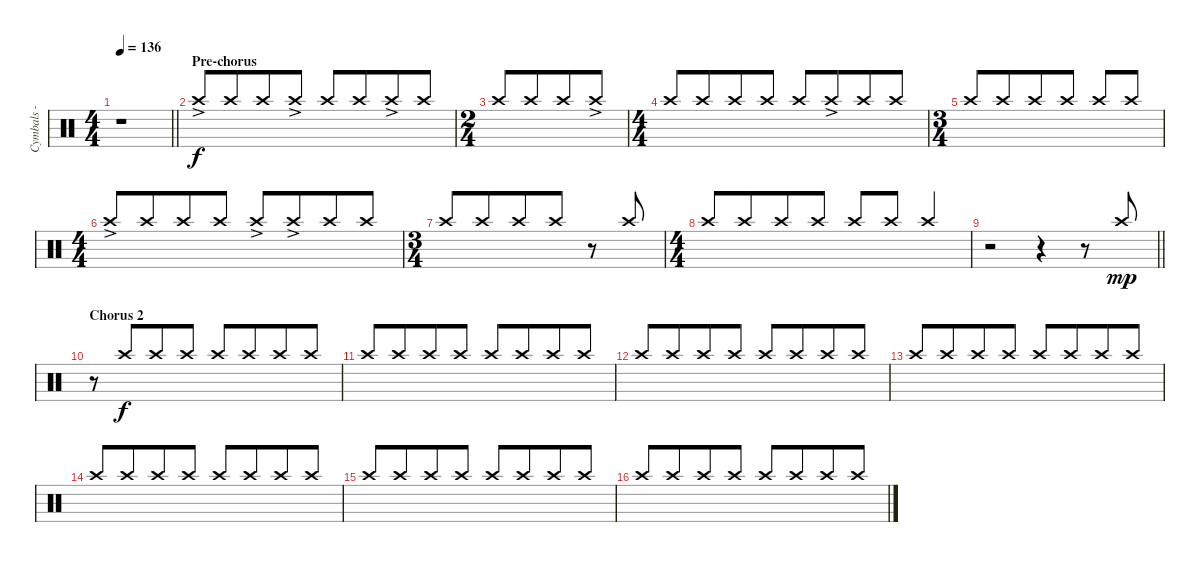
\track ("Cymbals - crash - left" "Cymbals - ") {instrument percussion}
\staff {score}
\articulation defaults
\ts (4 4)
\tempo 136
\clef neutral
\barLineRight lightlight
\ks c
r.1{dy ff} |
\section ("" "Pre-chorus")
"Crash high (hit)"{ac}.8{dy f beam Up} "Crash high (hit)".8{beam Up beam merge} "Crash high (hit)".8{beam Up} "Crash high (hit)"{ac}.8{beam Up} "Crash high (hit)".8{beam Up} "Crash high (hit)".8{beam Up beam merge} "Crash high (hit)"{ac}.8{beam Up} "Crash high (hit)".8{beam Up} |
\ts (2 4)
"Crash high (hit)".8{beam Up} "Crash high (hit)".8{beam Up beam merge} "Crash high (hit)".8{beam Up} "Crash high (hit)"{ac}.8{beam Up} |
\ts (4 4)
"Crash high (hit)".8{beam Up} "Crash high (hit)".8{beam Up beam merge} "Crash high (hit)".8{beam Up} "Crash high (hit)".8{beam Up} "Crash high (hit)".8{beam Up} "Crash high (hit)"{ac}.8{beam Up beam merge} "Crash high (hit)".8{beam Up} "Crash high (hit)".8{beam Up} |
\ts (3 4)
"Crash high (hit)".8{beam Up} "Crash high (hit)".8{beam Up beam merge} "Crash high (hit)".8{beam Up} "Crash high (hit)".8{beam Up} "Crash high (hit)".8{beam Up} "Crash high (hit)".8{beam Up} |
\ts (4 4)
"Crash high (hit)"{ac}.8{beam Up} "Crash high (hit)".8{beam Up beam merge} "Crash high (hit)".8{beam Up} "Crash high (hit)".8{beam Up} "Crash high (hit)"{ac}.8{beam Up} "Crash high (hit)"{ac}.8{beam Up beam merge} "Crash high (hit)".8{beam Up} "Crash high (hit)".8{beam Up} |
\ts (3 4)
"Crash high (hit)".8{beam Up} "Crash high (hit)".8{beam Up beam merge} "Crash high (hit)".8{beam Up} "Crash high (hit)".8{beam Up} r.8 "Crash high (hit)".8{beam Up} |
\ts (4 4)
"Crash high (hit)".8{beam Up} "Crash high (hit)".8{beam Up beam merge} "Crash high (hit)".8{beam Up} "Crash high (hit)".8{beam Up} "Crash high (hit)".8{beam Up} "Crash high (hit)".8{beam Up} "Crash high (hit)".4{beam Up} |
\barLineRight lightlight
r.2 r.4 r.8 "Crash high (hit)".8{dy mp beam Up} |
\section ("" "Chorus 2")
r.8{beam Up} "Crash high (hit)".8{dy f beam Up beam merge} "Crash high (hit)".8{beam Up} "Crash high (hit)".8{beam Up} "Crash high (hit)".8{beam Up} "Crash high (hit)".8{beam Up beam merge} "Crash high (hit)".8{beam Up} "Crash high (hit)".8{beam Up} |
"Crash high (hit)".8{beam Up} "Crash high (hit)".8{beam Up beam merge} "Crash high (hit)".8{beam Up} "Crash high (hit)".8{beam Up} "Crash high (hit)".8{beam Up} "Crash high (hit)".8{beam Up beam merge} "Crash high (hit)".8{beam Up} "Crash high (hit)".8{beam Up} |
"Crash high (hit)".8{beam Up} "Crash high (hit)".8{beam Up beam merge} "Crash high (hit)".8{beam Up} "Crash high (hit)".8{beam Up} "Crash high (hit)".8{beam Up} "Crash high (hit)".8{beam Up beam merge} "Crash high (hit)".8{beam Up} "Crash high (hit)".8{beam Up} |
"Crash high (hit)".8{beam Up} "Crash high (hit)".8{beam Up beam merge} "Crash high (hit)".8{beam Up} "Crash high (hit)".8{beam Up} "Crash high (hit)".8{beam Up} "Crash high (hit)".8{beam Up beam merge} "Crash high (hit)".8{beam Up} "Crash high (hit)".8{beam Up} |
"Crash high (hit)".8{beam Up} "Crash high (hit)".8{beam Up beam merge} "Crash high (hit)".8{beam Up} "Crash high (hit)".8{beam Up} "Crash high (hit)".8{beam Up} "Crash high (hit)".8{beam Up beam merge} "Crash high (hit)".8{beam Up} "Crash high (hit)".8{beam Up} |
"Crash high (hit)".8{beam Up} "Crash high (hit)".8{beam Up beam merge} "Crash high (hit)".8{beam Up} "Crash high (hit)".8{beam Up} "Crash high (hit)".8{beam Up} "Crash high (hit)".8{beam Up beam merge} "Crash high (hit)".8{beam Up} "Crash high (hit)".8{beam Up} |
"Crash high (hit)".8{beam Up} "Crash high (hit)".8{beam Up beam merge} "Crash high (hit)".8{beam Up} "Crash high (hit)".8{beam Up} "Crash high (hit)".8{beam Up} "Crash high (hit)".8{beam Up beam merge} "Crash high (hit)".8{beam Up} "Crash high (hit)".8{beam Up}
